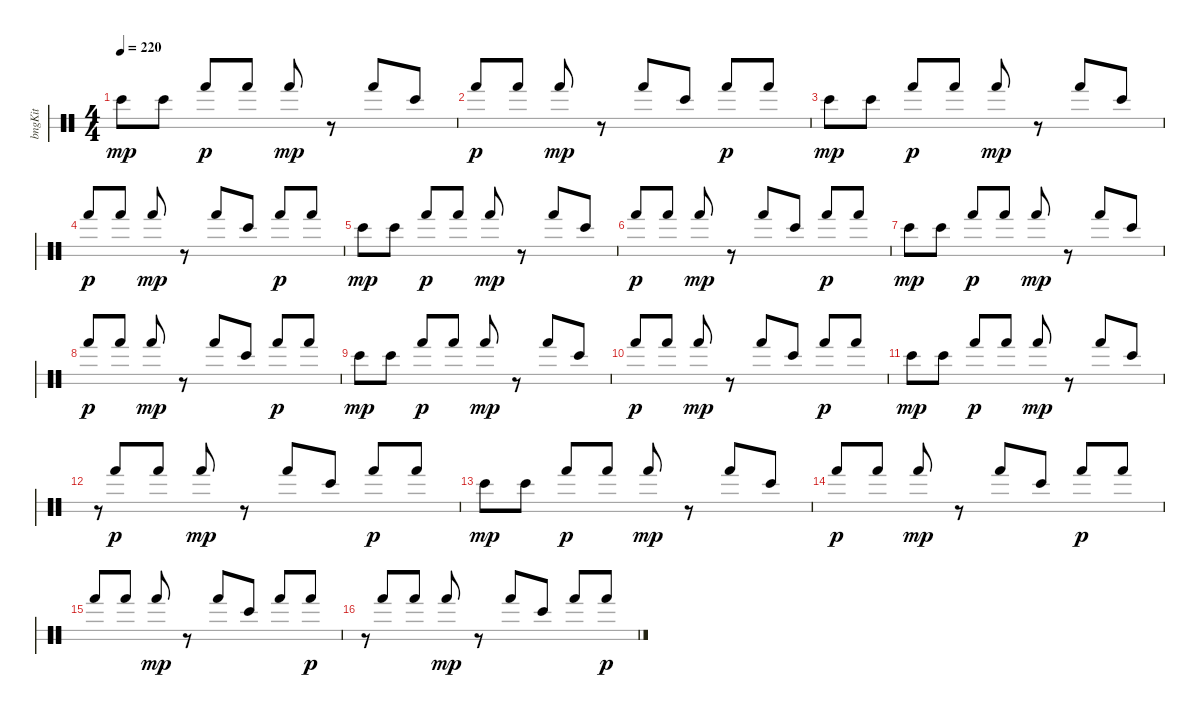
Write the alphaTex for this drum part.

\bracketExtendMode groupsimilarinstruments
\otherSystemsTrackNameOrientation horizontal
\track ("Bongos" "bngKit") {instrument percussion}
\staff {score 2}
\articulation defaults
\ts (4 4)
\tempo 220
\clef neutral
\ks c "Bongo High (hit)".8{dy mp beam Down} "Bongo High (hit)".8{beam Down} "Hand (hit)".8{dy p beam Up} "Hand (hit)".8{beam Up} "Hand (hit)".8{dy mp beam Up}
r.8{beam Up} "Hand (hit)".8{beam Up} "Bongo High (hit)".8{beam Up} |
"Hand (hit)".8{dy p beam Up} "Hand (hit)".8{beam Up} "Hand (hit)".8{dy mp beam Up} r.8{beam Up} "Hand (hit)".8{beam Up} "Bongo High (hit)".8{beam Up} "Hand (hit)".8{dy p beam Up} "Hand (hit)".8{beam Up} |
"Bongo High (hit)".8{dy mp beam Down} "Bongo High (hit)".8{beam Down} "Hand (hit)".8{dy p beam Up} "Hand (hit)".8{beam Up} "Hand (hit)".8{dy mp beam Up} r.8{beam Up} "Hand (hit)".8{beam Up} "Bongo High (hit)".8{beam Up} |
"Hand (hit)".8{dy p beam Up} "Hand (hit)".8{beam Up} "Hand (hit)".8{dy mp beam Up} r.8{beam Up} "Hand (hit)".8{beam Up} "Bongo High (hit)".8{beam Up} "Hand (hit)".8{dy p beam Up} "Hand (hit)".8{beam Up} |
"Bongo High (hit)".8{dy mp beam Down} "Bongo High (hit)".8{beam Down} "Hand (hit)".8{dy p beam Up} "Hand (hit)".8{beam Up} "Hand (hit)".8{dy mp beam Up} r.8{beam Up} "Hand (hit)".8{beam Up} "Bongo High (hit)".8{beam Up} |
"Hand (hit)".8{dy p beam Up} "Hand (hit)".8{beam Up} "Hand (hit)".8{dy mp beam Up} r.8{beam Up} "Hand (hit)".8{beam Up} "Bongo High (hit)".8{beam Up} "Hand (hit)".8{dy p beam Up} "Hand (hit)".8{beam Up} |
"Bongo High (hit)".8{dy mp beam Down} "Bongo High (hit)".8{beam Down} "Hand (hit)".8{dy p beam Up} "Hand (hit)".8{beam Up} "Hand (hit)".8{dy mp beam Up} r.8{beam Up} "Hand (hit)".8{beam Up} "Bongo High (hit)".8{beam Up} |
"Hand (hit)".8{dy p beam Up} "Hand (hit)".8{beam Up} "Hand (hit)".8{dy mp beam Up} r.8{beam Up} "Hand (hit)".8{beam Up} "Bongo High (hit)".8{beam Up} "Hand (hit)".8{dy p beam Up} "Hand (hit)".8{beam Up} |
"Bongo High (hit)".8{dy mp beam Down} "Bongo High (hit)".8{beam Down} "Hand (hit)".8{dy p beam Up} "Hand (hit)".8{beam Up} "Hand (hit)".8{dy mp beam Up} r.8{beam Up} "Hand (hit)".8{beam Up} "Bongo High (hit)".8{beam Up} |
"Hand (hit)".8{dy p beam Up} "Hand (hit)".8{beam Up} "Hand (hit)".8{dy mp beam Up} r.8{beam Up} "Hand (hit)".8{beam Up} "Bongo High (hit)".8{beam Up} "Hand (hit)".8{dy p beam Up} "Hand (hit)".8{beam Up} |
"Bongo High (hit)".8{dy mp beam Down} "Bongo High (hit)".8{beam Down} "Hand (hit)".8{dy p beam Up} "Hand (hit)".8{beam Up} "Hand (hit)".8{dy mp beam Up} r.8{beam Up} "Hand (hit)".8{beam Up} "Bongo High (hit)".8{beam Up} |
r.8{gr beam Up} "Hand (hit)".8{dy p beam Up} "Hand (hit)".8{beam Up} "Hand (hit)".8{dy mp beam Up} r.8{beam Up} "Hand (hit)".8{beam Up} "Bongo High (hit)".8{beam Up} "Hand (hit)".8{dy p beam Up} "Hand (hit)".8{beam Up} |
"Bongo High (hit)".8{dy mp beam Down} "Bongo High (hit)".8{beam Down} "Hand (hit)".8{dy p beam Up} "Hand (hit)".8{beam Up} "Hand (hit)".8{dy mp beam Up} r.8{beam Up} "Hand (hit)".8{beam Up} "Bongo High (hit)".8{beam Up} |
"Hand (hit)".8{dy p beam Up} "Hand (hit)".8{beam Up} "Hand (hit)".8{dy mp beam Up} r.8{beam Up} "Hand (hit)".8{beam Up} "Bongo High (hit)".8{beam Up} "Hand (hit)".8{dy p beam Up} "Hand (hit)".8{beam Up} |
"Hand (hit)".8{beam Up} "Hand (hit)".8{beam Up} "Hand (hit)".8{dy mp beam Up} r.8{beam Up} "Hand (hit)".8{beam Up} "Bongo High (hit)".8{beam Up} "Hand (hit)".8{beam Up} "Hand (hit)".8{dy p beam Up} |
r.8{gr beam Up} "Hand (hit)".8{beam Up} "Hand (hit)".8{beam Up} "Hand (hit)".8{dy mp beam Up} r.8{beam Up} "Hand (hit)".8{beam Up} "Bongo High (hit)".8{beam Up} "Hand (hit)".8{beam Up} "Hand (hit)".8{dy p beam Up}
